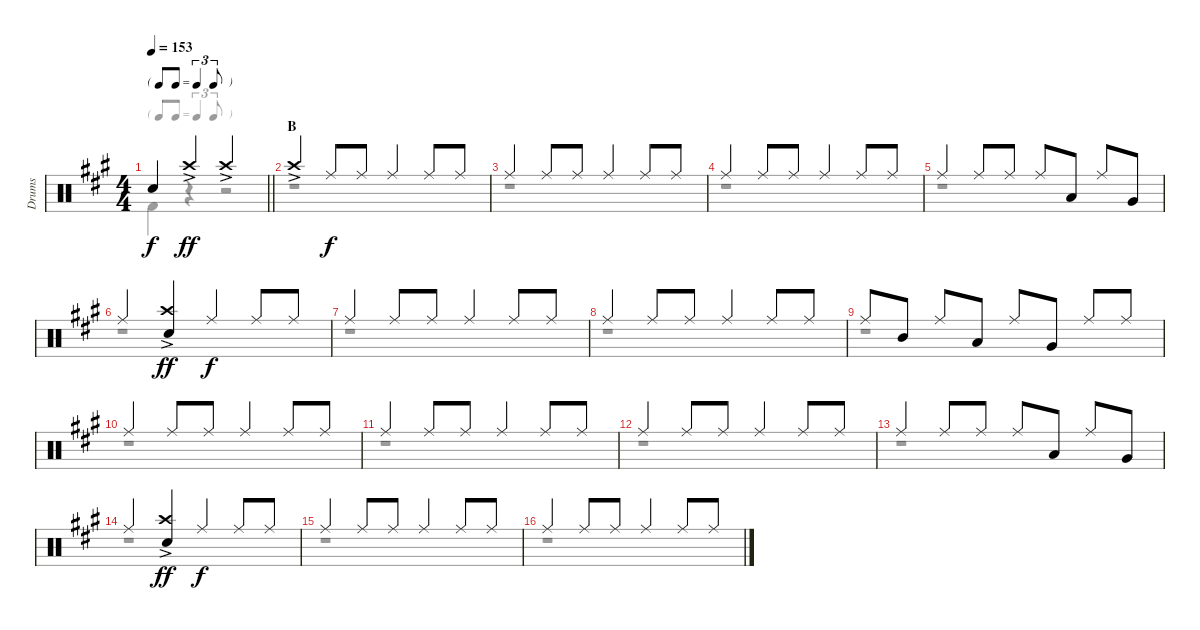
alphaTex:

\track ("Drums" "Drums") {instrument percussion}
\staff {score}
\articulation defaults
\voice
\ts (4 4)
\tf triplet8th
\tempo 153
\clef neutral
\barLineRight lightlight
\ks a "Snare (hit) 2".4{dy f} "Crash high (hit)"{ac}.4{dy ff} "Crash high (hit)"{ac}.2
|
\section ("" "B")
"Crash high (hit)"{ac}.4 "Ride (middle)".8{dy f} "Ride (middle)".8 "Ride (middle)".4 "Ride (middle)".8 "Ride (middle)".8 |
"Ride (middle)".4 "Ride (middle)".8 "Ride (middle)".8 "Ride (middle)".4 "Ride (middle)".8 "Ride (middle)".8 |
"Ride (middle)".4 "Ride (middle)".8 "Ride (middle)".8 "Ride (middle)".4 "Ride (middle)".8 "Ride (middle)".8 |
"Ride (middle)".4 "Ride (middle)".8 "Ride (middle)".8 "Ride (middle)".8 "Low Tom (hit)".8 "Ride (middle)".8 "Very Low Tom (hit)".8 |
"Ride (middle)".4 ("Crash high (hit)"{ac} "Snare (hit) 2").4{dy ff} "Ride (middle)".4{dy f} "Ride (middle)".8 "Ride (middle)".8 |
"Ride (middle)".4 "Ride (middle)".8 "Ride (middle)".8 "Ride (middle)".4 "Ride (middle)".8 "Ride (middle)".8 |
"Ride (middle)".4 "Ride (middle)".8 "Ride (middle)".8 "Ride (middle)".4 "Ride (middle)".8 "Ride (middle)".8 |
"Ride (middle)".8 "Mid Tom (hit)".8 "Ride (middle)".8 "Low Tom (hit)".8 "Ride (middle)".8 "Very Low Tom (hit)".8 "Ride (middle)".8 "Ride (middle)".8 |
"Ride (middle)".4 "Ride (middle)".8 "Ride (middle)".8 "Ride (middle)".4 "Ride (middle)".8 "Ride (middle)".8 |
"Ride (middle)".4 "Ride (middle)".8 "Ride (middle)".8 "Ride (middle)".4 "Ride (middle)".8 "Ride (middle)".8 |
"Ride (middle)".4 "Ride (middle)".8 "Ride (middle)".8 "Ride (middle)".4 "Ride (middle)".8 "Ride (middle)".8 |
"Ride (middle)".4 "Ride (middle)".8 "Ride (middle)".8 "Ride (middle)".8 "Low Tom (hit)".8 "Ride (middle)".8 "Very Low Tom (hit)".8 |
"Ride (middle)".4 ("Crash high (hit)"{ac} "Snare (hit) 2").4{dy ff} "Ride (middle)".4{dy f} "Ride (middle)".8 "Ride (middle)".8 |
"Ride (middle)".4 "Ride (middle)".8 "Ride (middle)".8 "Ride (middle)".4 "Ride (middle)".8 "Ride (middle)".8 |
"Ride (middle)".4 "Ride (middle)".8 "Ride (middle)".8 "Ride (middle)".4 "Ride (middle)".8 "Ride (middle)".8
\voice
\clef neutral
\ottava regular
\simile none
\barLineRight lightlight
\ks a "Kick (hit) 2".4{dy f}
r.4 r.2 |
r.1 |
r.1 |
r.1 |
r.1 |
r.1 |
r.1 |
r.1 |
r.1 |
r.1 |
r.1 |
r.1 |
r.1 |
r.1 |
r.1 |
r.1
